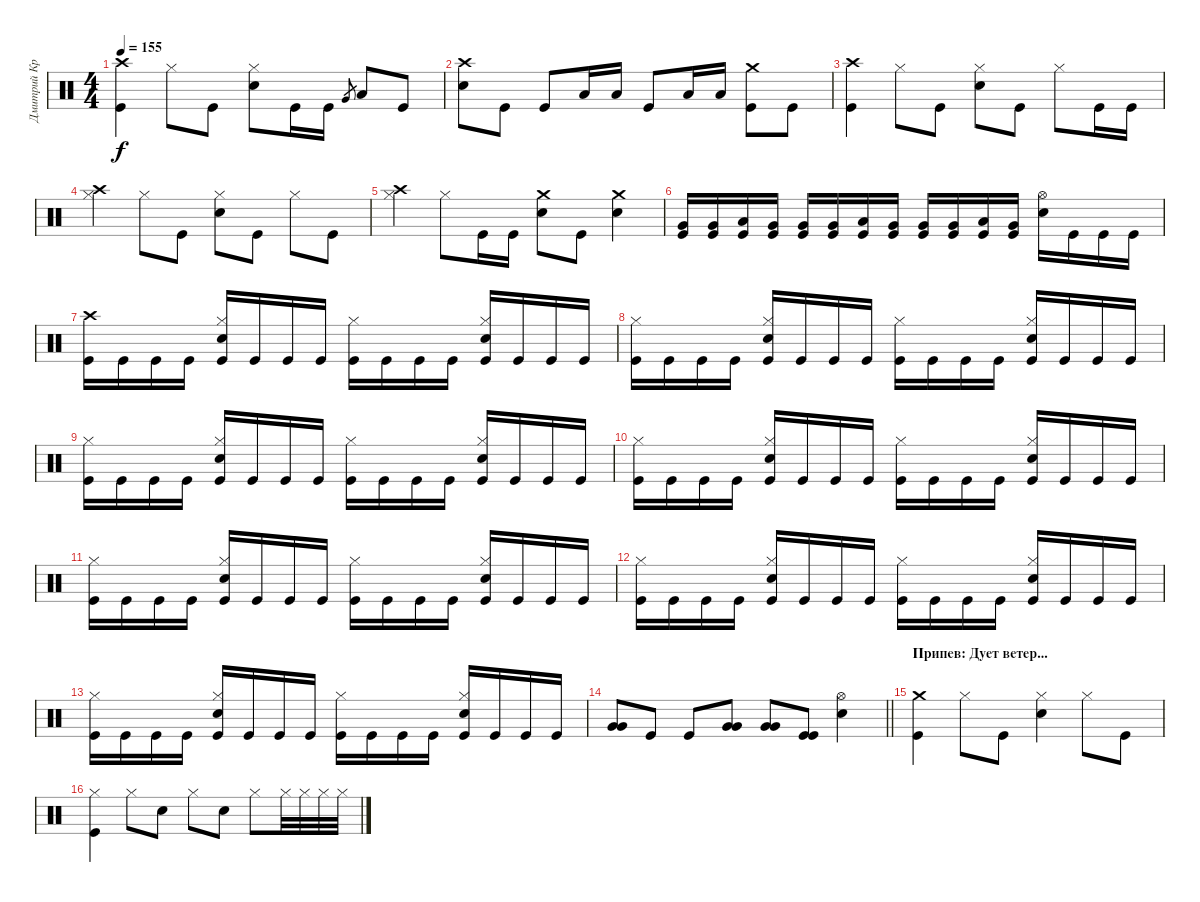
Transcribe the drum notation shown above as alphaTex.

\track ("Дмитрий Кривенков" "Дмитрий Кр") {instrument percussion}
\staff {score}
\articulation defaults
\ts (4 4)
\tempo 155
\clef neutral
\ks c
("Crash high (hit)" "Kick (hit)").4{dy f} "Hi-Hat (closed)".8 "Kick (hit)".8 ("Hi-Hat (closed)" "Snare (hit) 2").8 "Kick (hit)".16 "Kick (hit)".16 "Very Low Tom (hit)".8{gr} "Low Tom (hit)".8 "Kick (hit)".8 |
("Crash high (hit)" "Snare (hit) 2").8 "Kick (hit)".8 "Kick (hit)".8 "Low Tom (hit)".16 "Low Tom (hit)".16 "Kick (hit)".8 "Low Tom (hit)".16 "Low Tom (hit)".16 ("Crash medium (hit)" "Kick (hit)").8 "Kick (hit)".8 |
("Crash high (hit)" "Kick (hit)").4 "Hi-Hat (closed)".8 "Kick (hit)".8 ("Hi-Hat (closed)" "Snare (hit) 2").8 "Kick (hit)".8 "Hi-Hat (closed)".8 "Kick (hit)".16 "Kick (hit)".16 |
("Crash high (hit)" "Hi-Hat (closed)").4 "Hi-Hat (closed)".8 "Kick (hit)".8 ("Hi-Hat (closed)" "Snare (hit) 2").8 "Kick (hit)".8 "Hi-Hat (closed)".8 "Kick (hit)".8 |
("Crash high (hit)" "Hi-Hat (closed)").4 "Hi-Hat (closed)".8 "Kick (hit)".16 "Kick (hit)".16 ("Crash medium (hit)" "Snare (hit) 2").8 "Kick (hit)".8 ("Crash medium (hit)" "Snare (hit) 2").4 |
("Very Low Tom (hit)" "Kick (hit)").16 ("Very Low Tom (hit)" "Kick (hit)").16 ("Low Floor Tom (hit)" "Kick (hit)").16 ("Very Low Tom (hit)" "Kick (hit)").16 ("Very Low Tom (hit)" "Kick (hit)").16 ("Very Low Tom (hit)" "Kick (hit)").16 ("Low Floor Tom (hit)" "Kick (hit)").16 ("Very Low Tom (hit)" "Kick (hit)").16 ("Very Low Tom (hit)" "Kick (hit)").16 ("Very Low Tom (hit)" "Kick (hit)").16 ("Low Floor Tom (hit)" "Kick (hit)").16 ("Very Low Tom (hit)" "Kick (hit)").16 ("Hi-Hat (open)" "Snare (hit) 2").16 "Kick (hit)".16 "Kick (hit)".16 "Kick (hit)".16 |
("Crash high (hit)" "Kick (hit)").16 "Kick (hit)".16 "Kick (hit)".16 "Kick (hit)".16 ("Hi-Hat (closed)" "Snare (hit) 2" "Kick (hit)").16 "Kick (hit)".16 "Kick (hit)".16 "Kick (hit)".16 ("Hi-Hat (closed)" "Kick (hit)").16 "Kick (hit)".16 "Kick (hit)".16 "Kick (hit)".16 ("Hi-Hat (closed)" "Snare (hit) 2" "Kick (hit)").16 "Kick (hit)".16 "Kick (hit)".16 "Kick (hit)".16 |
("Hi-Hat (closed)" "Kick (hit)").16 "Kick (hit)".16 "Kick (hit)".16 "Kick (hit)".16 ("Hi-Hat (closed)" "Snare (hit) 2" "Kick (hit)").16 "Kick (hit)".16 "Kick (hit)".16 "Kick (hit)".16 ("Hi-Hat (closed)" "Kick (hit)").16 "Kick (hit)".16 "Kick (hit)".16 "Kick (hit)".16 ("Hi-Hat (closed)" "Snare (hit) 2" "Kick (hit)").16 "Kick (hit)".16 "Kick (hit)".16 "Kick (hit)".16 |
("Hi-Hat (closed)" "Kick (hit)").16 "Kick (hit)".16 "Kick (hit)".16 "Kick (hit)".16 ("Hi-Hat (closed)" "Snare (hit) 2" "Kick (hit)").16 "Kick (hit)".16 "Kick (hit)".16 "Kick (hit)".16 ("Hi-Hat (closed)" "Kick (hit)").16 "Kick (hit)".16 "Kick (hit)".16 "Kick (hit)".16 ("Hi-Hat (closed)" "Snare (hit) 2" "Kick (hit)").16 "Kick (hit)".16 "Kick (hit)".16 "Kick (hit)".16 |
("Hi-Hat (closed)" "Kick (hit)").16 "Kick (hit)".16 "Kick (hit)".16 "Kick (hit)".16 ("Hi-Hat (closed)" "Snare (hit) 2" "Kick (hit)").16 "Kick (hit)".16 "Kick (hit)".16 "Kick (hit)".16 ("Hi-Hat (closed)" "Kick (hit)").16 "Kick (hit)".16 "Kick (hit)".16 "Kick (hit)".16 ("Hi-Hat (closed)" "Snare (hit) 2" "Kick (hit)").16 "Kick (hit)".16 "Kick (hit)".16 "Kick (hit)".16 |
("Hi-Hat (closed)" "Kick (hit)").16 "Kick (hit)".16 "Kick (hit)".16 "Kick (hit)".16 ("Hi-Hat (closed)" "Snare (hit) 2" "Kick (hit)").16 "Kick (hit)".16 "Kick (hit)".16 "Kick (hit)".16 ("Hi-Hat (closed)" "Kick (hit)").16 "Kick (hit)".16 "Kick (hit)".16 "Kick (hit)".16 ("Hi-Hat (closed)" "Snare (hit) 2" "Kick (hit)").16 "Kick (hit)".16 "Kick (hit)".16 "Kick (hit)".16 |
("Hi-Hat (closed)" "Kick (hit)").16 "Kick (hit)".16 "Kick (hit)".16 "Kick (hit)".16 ("Hi-Hat (closed)" "Snare (hit) 2" "Kick (hit)").16 "Kick (hit)".16 "Kick (hit)".16 "Kick (hit)".16 ("Hi-Hat (closed)" "Kick (hit)").16 "Kick (hit)".16 "Kick (hit)".16 "Kick (hit)".16 ("Hi-Hat (closed)" "Snare (hit) 2" "Kick (hit)").16 "Kick (hit)".16 "Kick (hit)".16 "Kick (hit)".16 |
("Hi-Hat (closed)" "Kick (hit)").16 "Kick (hit)".16 "Kick (hit)".16 "Kick (hit)".16 ("Hi-Hat (closed)" "Snare (hit) 2" "Kick (hit)").16 "Kick (hit)".16 "Kick (hit)".16 "Kick (hit)".16 ("Hi-Hat (closed)" "Kick (hit)").16 "Kick (hit)".16 "Kick (hit)".16 "Kick (hit)".16 ("Hi-Hat (closed)" "Snare (hit) 2" "Kick (hit)").16 "Kick (hit)".16 "Kick (hit)".16 "Kick (hit)".16 |
\barLineRight lightlight
("Very Low Tom (hit)" "Very Low Tom (hit)").8 "Kick (hit)".8 "Kick (hit)".8 ("Very Low Tom (hit)" "Very Low Tom (hit)").8 ("Very Low Tom (hit)" "Very Low Tom (hit)").8 ("Kick (hit)" "Kick (hit)").8 ("Hi-Hat (open)" "Snare (hit) 2").4 |
\section ("" "Припев: Дует ветер...")
("Crash medium (hit)" "Kick (hit)").4 "Hi-Hat (closed)".8 "Kick (hit)".8 ("Hi-Hat (closed)" "Snare (hit) 2").4 "Hi-Hat (closed)".8 "Kick (hit)".8 |
("Hi-Hat (closed)" "Kick (hit)").4 "Hi-Hat (closed)".8 "Snare (hit) 2".8 "Hi-Hat (closed)".8 "Snare (hit) 2".8 "Hi-Hat (closed)".8 "Hi-Hat (closed)".32 "Hi-Hat (closed)".32 "Hi-Hat (closed)".32 "Hi-Hat (closed)".32
